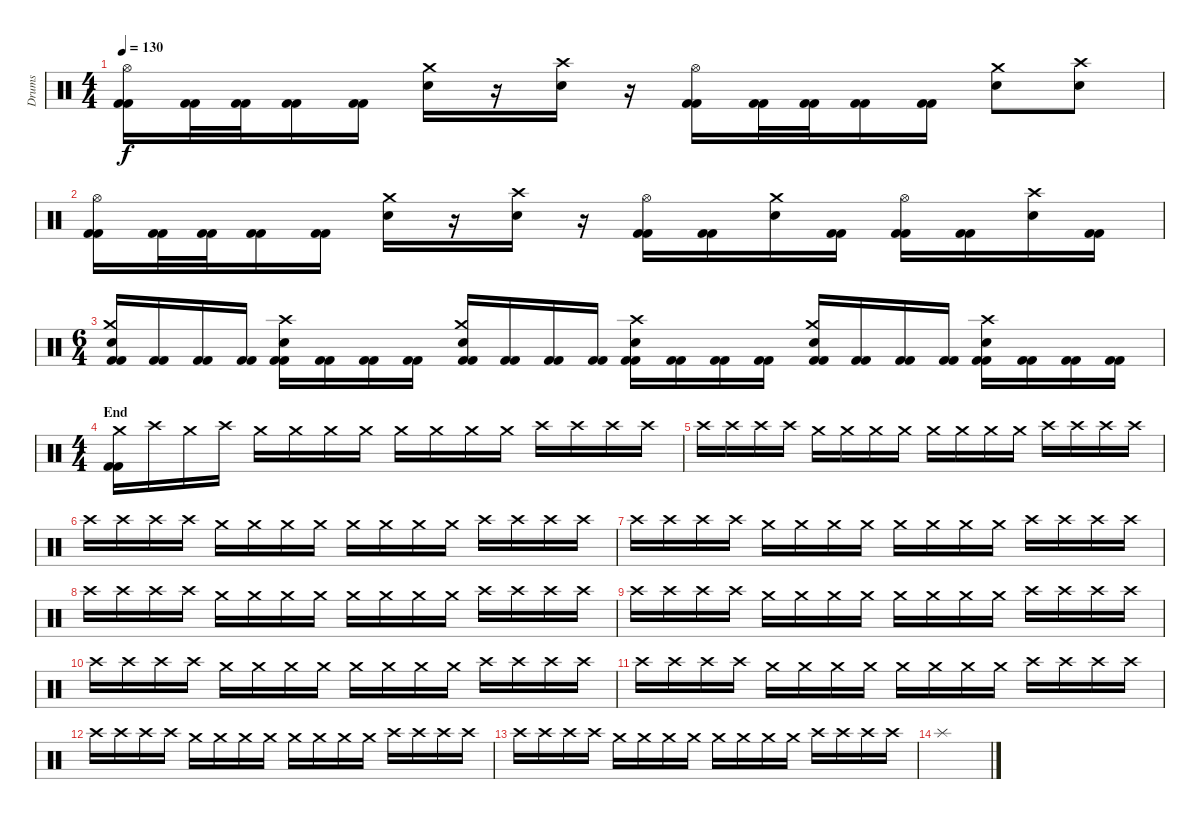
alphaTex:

\track ("Drums" "Drums") {instrument percussion}
\staff {score}
\articulation defaults
\ts (4 4)
\tempo 130
\clef neutral
\ks c
("Hi-Hat (open)" "Kick (hit) 2" "Kick (hit) 2").16{dy f} ("Kick (hit) 2" "Kick (hit) 2").32 ("Kick (hit) 2" "Kick (hit) 2").32 ("Kick (hit) 2" "Kick (hit) 2").16 ("Kick (hit) 2" "Kick (hit) 2").16 ("Crash medium (hit)" "Electric Snare (hit)").16 r.16 ("Crash high (hit)" "Electric Snare (hit)").16 r.16 ("Hi-Hat (open)" "Kick (hit) 2" "Kick (hit) 2").16 ("Kick (hit) 2" "Kick (hit) 2").32 ("Kick (hit) 2" "Kick (hit) 2").32 ("Kick (hit) 2" "Kick (hit) 2").16 ("Kick (hit) 2" "Kick (hit) 2").16 ("Crash medium (hit)" "Electric Snare (hit)").8 ("Crash high (hit)" "Electric Snare (hit)").8 |
("Hi-Hat (open)" "Kick (hit) 2" "Kick (hit) 2").16 ("Kick (hit) 2" "Kick (hit) 2").32 ("Kick (hit) 2" "Kick (hit) 2").32 ("Kick (hit) 2" "Kick (hit) 2").16 ("Kick (hit) 2" "Kick (hit) 2").16 ("Crash medium (hit)" "Electric Snare (hit)").16 r.16 ("Crash high (hit)" "Electric Snare (hit)").16 r.16 ("Hi-Hat (open)" "Kick (hit) 2" "Kick (hit) 2").16 ("Kick (hit) 2" "Kick (hit) 2").16 ("Crash medium (hit)" "Electric Snare (hit)").16 ("Kick (hit) 2" "Kick (hit) 2").16 ("Hi-Hat (open)" "Kick (hit) 2" "Kick (hit) 2").16 ("Kick (hit) 2" "Kick (hit) 2").16 ("Crash high (hit)" "Electric Snare (hit)").16 ("Kick (hit) 2" "Kick (hit) 2").16 |
\ts (6 4)
("Crash medium (hit)" "Electric Snare (hit)" "Kick (hit) 2" "Kick (hit) 2").16 ("Kick (hit) 2" "Kick (hit) 2").16 ("Kick (hit) 2" "Kick (hit) 2").16 ("Kick (hit) 2" "Kick (hit) 2").16 ("Crash high (hit)" "Electric Snare (hit)" "Kick (hit) 2" "Kick (hit) 2").16 ("Kick (hit) 2" "Kick (hit) 2").16 ("Kick (hit) 2" "Kick (hit) 2").16 ("Kick (hit) 2" "Kick (hit) 2").16 ("Crash medium (hit)" "Electric Snare (hit)" "Kick (hit) 2" "Kick (hit) 2").16 ("Kick (hit) 2" "Kick (hit) 2").16 ("Kick (hit) 2" "Kick (hit) 2").16 ("Kick (hit) 2" "Kick (hit) 2").16 ("Crash high (hit)" "Electric Snare (hit)" "Kick (hit) 2" "Kick (hit) 2").16 ("Kick (hit) 2" "Kick (hit) 2").16 ("Kick (hit) 2" "Kick (hit) 2").16 ("Kick (hit) 2" "Kick (hit) 2").16 ("Crash medium (hit)" "Electric Snare (hit)" "Kick (hit) 2" "Kick (hit) 2").16 ("Kick (hit) 2" "Kick (hit) 2").16 ("Kick (hit) 2" "Kick (hit) 2").16 ("Kick (hit) 2" "Kick (hit) 2").16 ("Crash high (hit)" "Electric Snare (hit)" "Kick (hit) 2" "Kick (hit) 2").16 ("Kick (hit) 2" "Kick (hit) 2").16 ("Kick (hit) 2" "Kick (hit) 2").16 ("Kick (hit) 2" "Kick (hit) 2").16 |
\ts (4 4)
\section ("" "End")
("Crash medium (hit)" "Kick (hit) 2" "Kick (hit) 2").16 "Crash high (hit)".16 "Crash medium (hit)".16 "Crash high (hit)".16 "Crash medium (hit)".16 "Crash medium (hit)".16 "Crash medium (hit)".16 "Crash medium (hit)".16 "Crash medium (hit)".16 "Crash medium (hit)".16 "Crash medium (hit)".16 "Crash medium (hit)".16 "Crash high (hit)".16 "Crash high (hit)".16 "Crash high (hit)".16 "Crash high (hit)".16 |
"Crash high (hit)".16 "Crash high (hit)".16 "Crash high (hit)".16 "Crash high (hit)".16 "Crash medium (hit)".16 "Crash medium (hit)".16 "Crash medium (hit)".16 "Crash medium (hit)".16 "Crash medium (hit)".16 "Crash medium (hit)".16 "Crash medium (hit)".16 "Crash medium (hit)".16 "Crash high (hit)".16 "Crash high (hit)".16 "Crash high (hit)".16 "Crash high (hit)".16 |
"Crash high (hit)".16 "Crash high (hit)".16 "Crash high (hit)".16 "Crash high (hit)".16 "Crash medium (hit)".16 "Crash medium (hit)".16 "Crash medium (hit)".16 "Crash medium (hit)".16 "Crash medium (hit)".16 "Crash medium (hit)".16 "Crash medium (hit)".16 "Crash medium (hit)".16 "Crash high (hit)".16 "Crash high (hit)".16 "Crash high (hit)".16 "Crash high (hit)".16 |
"Crash high (hit)".16 "Crash high (hit)".16 "Crash high (hit)".16 "Crash high (hit)".16 "Crash medium (hit)".16 "Crash medium (hit)".16 "Crash medium (hit)".16 "Crash medium (hit)".16 "Crash medium (hit)".16 "Crash medium (hit)".16 "Crash medium (hit)".16 "Crash medium (hit)".16 "Crash high (hit)".16 "Crash high (hit)".16 "Crash high (hit)".16 "Crash high (hit)".16 |
"Crash high (hit)".16 "Crash high (hit)".16 "Crash high (hit)".16 "Crash high (hit)".16 "Crash medium (hit)".16 "Crash medium (hit)".16 "Crash medium (hit)".16 "Crash medium (hit)".16 "Crash medium (hit)".16 "Crash medium (hit)".16 "Crash medium (hit)".16 "Crash medium (hit)".16 "Crash high (hit)".16 "Crash high (hit)".16 "Crash high (hit)".16 "Crash high (hit)".16 |
"Crash high (hit)".16 "Crash high (hit)".16 "Crash high (hit)".16 "Crash high (hit)".16 "Crash medium (hit)".16 "Crash medium (hit)".16 "Crash medium (hit)".16 "Crash medium (hit)".16 "Crash medium (hit)".16 "Crash medium (hit)".16 "Crash medium (hit)".16 "Crash medium (hit)".16 "Crash high (hit)".16 "Crash high (hit)".16 "Crash high (hit)".16 "Crash high (hit)".16 |
"Crash high (hit)".16 "Crash high (hit)".16 "Crash high (hit)".16 "Crash high (hit)".16 "Crash medium (hit)".16 "Crash medium (hit)".16 "Crash medium (hit)".16 "Crash medium (hit)".16 "Crash medium (hit)".16 "Crash medium (hit)".16 "Crash medium (hit)".16 "Crash medium (hit)".16 "Crash high (hit)".16 "Crash high (hit)".16 "Crash high (hit)".16 "Crash high (hit)".16 |
"Crash high (hit)".16 "Crash high (hit)".16 "Crash high (hit)".16 "Crash high (hit)".16 "Crash medium (hit)".16 "Crash medium (hit)".16 "Crash medium (hit)".16 "Crash medium (hit)".16 "Crash medium (hit)".16 "Crash medium (hit)".16 "Crash medium (hit)".16 "Crash medium (hit)".16 "Crash high (hit)".16 "Crash high (hit)".16 "Crash high (hit)".16 "Crash high (hit)".16 |
"Crash high (hit)".16 "Crash high (hit)".16 "Crash high (hit)".16 "Crash high (hit)".16 "Crash medium (hit)".16 "Crash medium (hit)".16 "Crash medium (hit)".16 "Crash medium (hit)".16 "Crash medium (hit)".16 "Crash medium (hit)".16 "Crash medium (hit)".16 "Crash medium (hit)".16 "Crash high (hit)".16 "Crash high (hit)".16 "Crash high (hit)".16 "Crash high (hit)".16 |
"Crash high (hit)".16 "Crash high (hit)".16 "Crash high (hit)".16 "Crash high (hit)".16 "Crash medium (hit)".16 "Crash medium (hit)".16 "Crash medium (hit)".16 "Crash medium (hit)".16 "Crash medium (hit)".16 "Crash medium (hit)".16 "Crash medium (hit)".16 "Crash medium (hit)".16 "Crash high (hit)".16 "Crash high (hit)".16 "Crash high (hit)".16 "Crash high (hit)".16 |
"Splash (hit)".1
